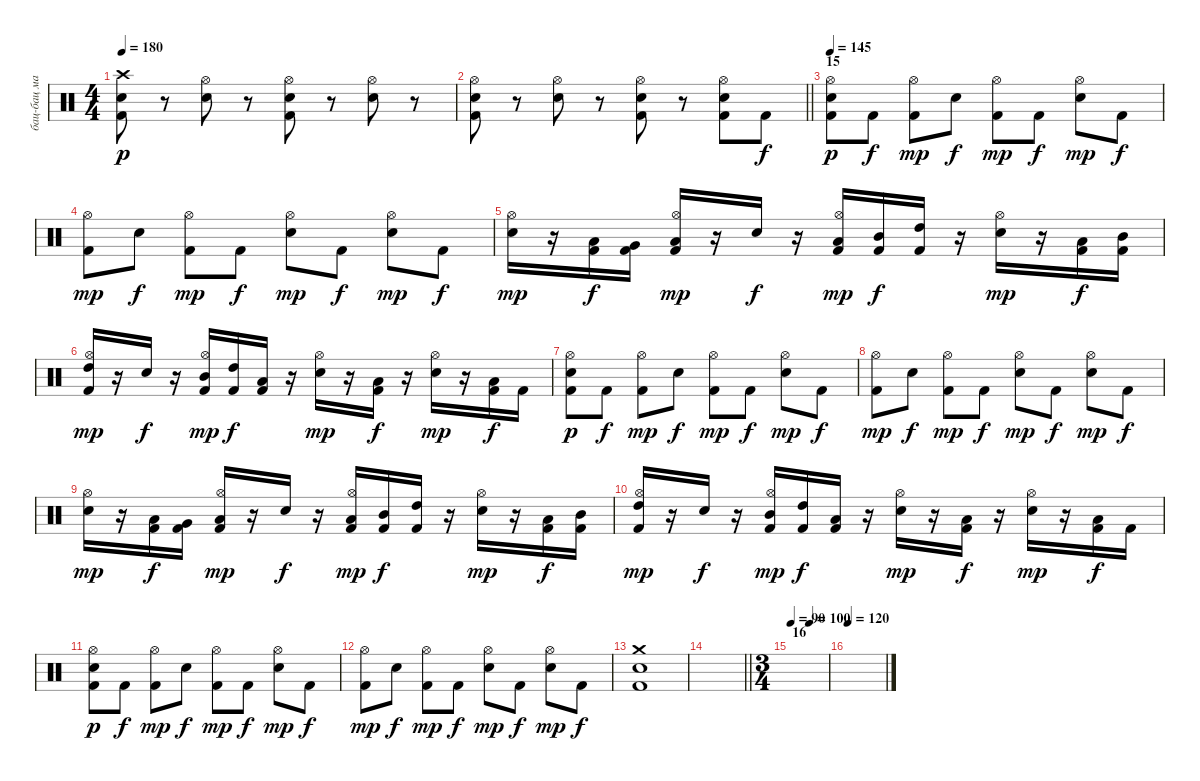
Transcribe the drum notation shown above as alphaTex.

\track ("бац-бац машина" "бац-бац ма") {instrument percussion}
\staff {score}
\articulation defaults
\ts (4 4)
\tempo 180
\clef neutral
\ks c
("Crash high (hit)" "Snare (hit) 2" "Kick (hit) 2").8{dy p} r.8 ("Hi-Hat (open)" "Snare (hit) 2").8 r.8 ("Hi-Hat (open)" "Snare (hit) 2" "Kick (hit) 2").8 r.8 ("Hi-Hat (open)" "Snare (hit) 2").8 r.8 |
\barLineRight lightlight
("Hi-Hat (open)" "Snare (hit) 2" "Kick (hit) 2").8 r.8 ("Hi-Hat (open)" "Snare (hit) 2").8 r.8 ("Hi-Hat (open)" "Snare (hit) 2" "Kick (hit) 2").8 r.8 ("Hi-Hat (open)" "Snare (hit) 2" "Kick (hit) 2").8 "Kick (hit) 2".8{dy f} |
\section ("" "15")
\tempo 145
("Hi-Hat (open)" "Snare (hit) 2" "Kick (hit) 2").8{dy p} "Kick (hit) 2".8{dy f} ("Hi-Hat (open)" "Kick (hit) 2").8{dy mp} "Snare (hit) 2".8{dy f} ("Hi-Hat (open)" "Kick (hit) 2").8{dy mp} "Kick (hit) 2".8{dy f} ("Hi-Hat (open)" "Snare (hit) 2").8{dy mp} "Kick (hit) 2".8{dy f} |
("Hi-Hat (open)" "Kick (hit) 2").8{dy mp} "Snare (hit) 2".8{dy f} ("Hi-Hat (open)" "Kick (hit) 2").8{dy mp} "Kick (hit) 2".8{dy f} ("Hi-Hat (open)" "Snare (hit) 2").8{dy mp} "Kick (hit) 2".8{dy f} ("Hi-Hat (open)" "Snare (hit) 2").8{dy mp} "Kick (hit) 2".8{dy f} |
("Hi-Hat (open)" "Snare (hit) 2").16{dy mp} r.16 ("Low Floor Tom (hit)" "Kick (hit) 2").16{dy f} ("Very Low Tom (hit)" "Kick (hit) 2").16 ("Hi-Hat (open)" "Low Tom (hit)" "Kick (hit) 2").16{dy mp} r.16 "Snare (hit) 2".16{dy f} r.16 ("Hi-Hat (open)" "Low Tom (hit)" "Kick (hit) 2").16{dy mp} ("Mid Tom (hit)" "Kick (hit) 2").16{dy f} ("High Tom (hit)" "Kick (hit) 2").16 r.16 ("Hi-Hat (open)" "Snare (hit) 2").16{dy mp} r.16 ("Low Tom (hit)" "Kick (hit) 2").16{dy f} ("Mid Tom (hit)" "Kick (hit) 2").16 |
("Hi-Hat (open)" "High Tom (hit)" "Kick (hit) 2").16{dy mp} r.16 "Snare (hit) 2".16{dy f} r.16 ("Hi-Hat (open)" "Mid Tom (hit)" "Kick (hit) 2").16{dy mp} ("High Tom (hit)" "Kick (hit) 2").16{dy f} ("Low Tom (hit)" "Kick (hit) 2").16 r.16 ("Hi-Hat (open)" "Snare (hit) 2").16{dy mp} r.16 ("Low Tom (hit)" "Kick (hit) 2").16{dy f} r.16 ("Hi-Hat (open)" "Snare (hit) 2").16{dy mp} r.16 ("Low Tom (hit)" "Kick (hit) 2").16{dy f} "Kick (hit) 2".16 |
("Hi-Hat (open)" "Snare (hit) 2" "Kick (hit) 2").8{dy p} "Kick (hit) 2".8{dy f} ("Hi-Hat (open)" "Kick (hit) 2").8{dy mp} "Snare (hit) 2".8{dy f} ("Hi-Hat (open)" "Kick (hit) 2").8{dy mp} "Kick (hit) 2".8{dy f} ("Hi-Hat (open)" "Snare (hit) 2").8{dy mp} "Kick (hit) 2".8{dy f} |
("Hi-Hat (open)" "Kick (hit) 2").8{dy mp} "Snare (hit) 2".8{dy f} ("Hi-Hat (open)" "Kick (hit) 2").8{dy mp} "Kick (hit) 2".8{dy f} ("Hi-Hat (open)" "Snare (hit) 2").8{dy mp} "Kick (hit) 2".8{dy f} ("Hi-Hat (open)" "Snare (hit) 2").8{dy mp} "Kick (hit) 2".8{dy f} |
("Hi-Hat (open)" "Snare (hit) 2").16{dy mp} r.16 ("Low Floor Tom (hit)" "Kick (hit) 2").16{dy f} ("Very Low Tom (hit)" "Kick (hit) 2").16 ("Hi-Hat (open)" "Low Tom (hit)" "Kick (hit) 2").16{dy mp} r.16 "Snare (hit) 2".16{dy f} r.16 ("Hi-Hat (open)" "Low Tom (hit)" "Kick (hit) 2").16{dy mp} ("Mid Tom (hit)" "Kick (hit) 2").16{dy f} ("High Tom (hit)" "Kick (hit) 2").16 r.16 ("Hi-Hat (open)" "Snare (hit) 2").16{dy mp} r.16 ("Low Tom (hit)" "Kick (hit) 2").16{dy f} ("Mid Tom (hit)" "Kick (hit) 2").16 |
("Hi-Hat (open)" "High Tom (hit)" "Kick (hit) 2").16{dy mp} r.16 "Snare (hit) 2".16{dy f} r.16 ("Hi-Hat (open)" "Mid Tom (hit)" "Kick (hit) 2").16{dy mp} ("High Tom (hit)" "Kick (hit) 2").16{dy f} ("Low Tom (hit)" "Kick (hit) 2").16 r.16 ("Hi-Hat (open)" "Snare (hit) 2").16{dy mp} r.16 ("Low Tom (hit)" "Kick (hit) 2").16{dy f} r.16 ("Hi-Hat (open)" "Snare (hit) 2").16{dy mp} r.16 ("Low Tom (hit)" "Kick (hit) 2").16{dy f} "Kick (hit) 2".16 |
("Hi-Hat (open)" "Snare (hit) 2" "Kick (hit) 2").8{dy p} "Kick (hit) 2".8{dy f} ("Hi-Hat (open)" "Kick (hit) 2").8{dy mp} "Snare (hit) 2".8{dy f} ("Hi-Hat (open)" "Kick (hit) 2").8{dy mp} "Kick (hit) 2".8{dy f} ("Hi-Hat (open)" "Snare (hit) 2").8{dy mp} "Kick (hit) 2".8{dy f} |
("Hi-Hat (open)" "Kick (hit) 2").8{dy mp} "Snare (hit) 2".8{dy f} ("Hi-Hat (open)" "Kick (hit) 2").8{dy mp} "Kick (hit) 2".8{dy f} ("Hi-Hat (open)" "Snare (hit) 2").8{dy mp} "Kick (hit) 2".8{dy f} ("Hi-Hat (open)" "Snare (hit) 2").8{dy mp} "Kick (hit) 2".8{dy f} |
("Crash medium (hit)" "Snare (hit) 2" "Kick (hit) 2").1 |
\barLineRight lightlight
|
\ts (3 4)
\section ("" "16")
\tempo 90
\tempo (100 0.5)
|
\tempo 120
